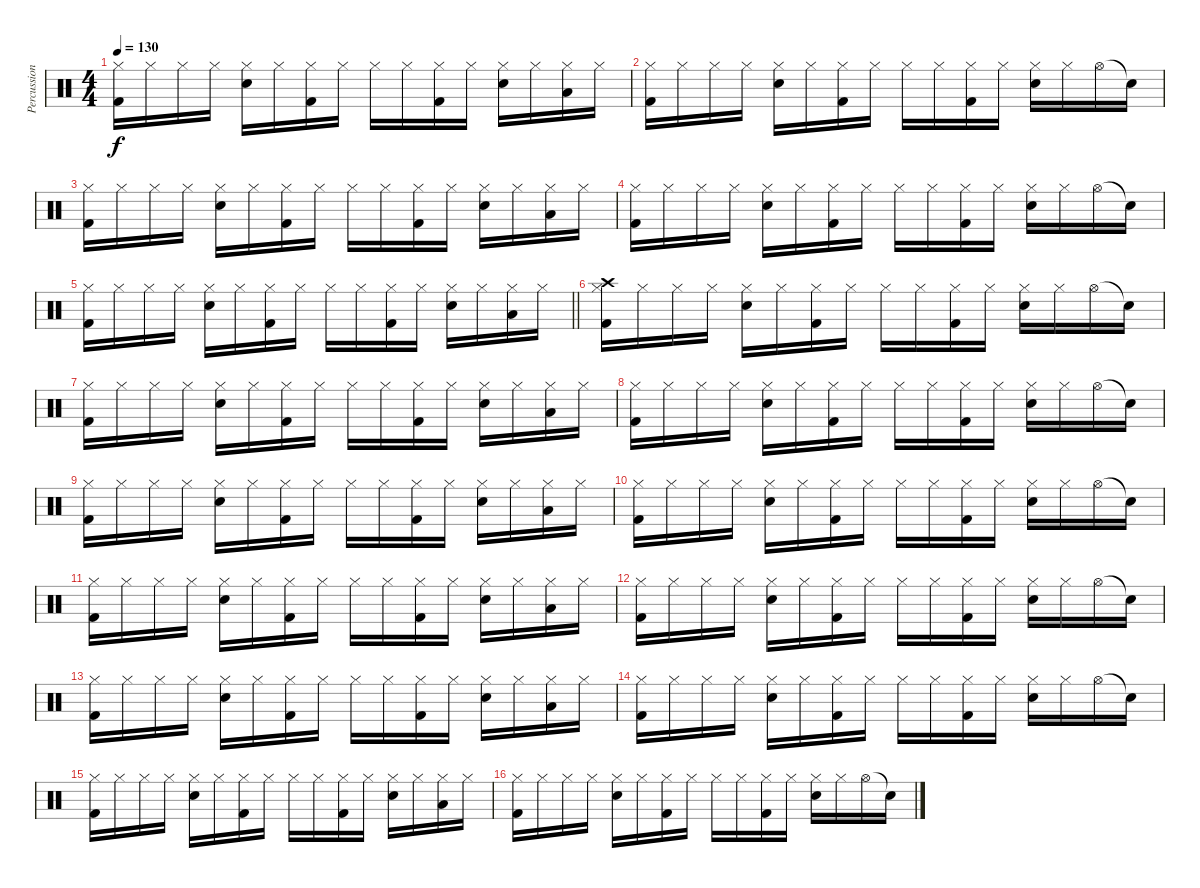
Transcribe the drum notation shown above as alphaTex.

\track ("Percussion" "Percussion") {instrument percussion}
\staff {score}
\articulation defaults
\ts (4 4)
\tempo 130
\clef neutral
\ks c
("Hi-Hat (closed)" "Kick (hit) 2").16{dy f} "Hi-Hat (closed)".16 "Hi-Hat (closed)".16 "Hi-Hat (closed)".16 ("Hi-Hat (closed)" "Snare (hit) 2").16 "Hi-Hat (closed)".16 ("Hi-Hat (closed)" "Kick (hit) 2").16 "Hi-Hat (closed)".16 "Hi-Hat (closed)".16 "Hi-Hat (closed)".16 ("Hi-Hat (closed)" "Kick (hit) 2").16 "Hi-Hat (closed)".16 ("Hi-Hat (closed)" "Snare (hit) 2").16 "Hi-Hat (closed)".16 ("Hi-Hat (closed)" "Low Tom (hit)").16 "Hi-Hat (closed)".16 |
("Hi-Hat (closed)" "Kick (hit) 2").16 "Hi-Hat (closed)".16 "Hi-Hat (closed)".16 "Hi-Hat (closed)".16 ("Hi-Hat (closed)" "Snare (hit) 2").16 "Hi-Hat (closed)".16 ("Hi-Hat (closed)" "Kick (hit) 2").16 "Hi-Hat (closed)".16 "Hi-Hat (closed)".16 "Hi-Hat (closed)".16 ("Hi-Hat (closed)" "Kick (hit) 2").16 "Hi-Hat (closed)".16 ("Hi-Hat (closed)" "Snare (hit) 2").16 "Hi-Hat (closed)".16 "Hi-Hat (open)".16 "Snare (hit)"{t}.16 |
("Hi-Hat (closed)" "Kick (hit) 2").16 "Hi-Hat (closed)".16 "Hi-Hat (closed)".16 "Hi-Hat (closed)".16 ("Hi-Hat (closed)" "Snare (hit) 2").16 "Hi-Hat (closed)".16 ("Hi-Hat (closed)" "Kick (hit) 2").16 "Hi-Hat (closed)".16 "Hi-Hat (closed)".16 "Hi-Hat (closed)".16 ("Hi-Hat (closed)" "Kick (hit) 2").16 "Hi-Hat (closed)".16 ("Hi-Hat (closed)" "Snare (hit) 2").16 "Hi-Hat (closed)".16 ("Hi-Hat (closed)" "Low Tom (hit)").16 "Hi-Hat (closed)".16 |
("Hi-Hat (closed)" "Kick (hit) 2").16 "Hi-Hat (closed)".16 "Hi-Hat (closed)".16 "Hi-Hat (closed)".16 ("Hi-Hat (closed)" "Snare (hit) 2").16 "Hi-Hat (closed)".16 ("Hi-Hat (closed)" "Kick (hit) 2").16 "Hi-Hat (closed)".16 "Hi-Hat (closed)".16 "Hi-Hat (closed)".16 ("Hi-Hat (closed)" "Kick (hit) 2").16 "Hi-Hat (closed)".16 ("Hi-Hat (closed)" "Snare (hit) 2").16 "Hi-Hat (closed)".16 "Hi-Hat (open)".16 "Snare (hit)"{t}.16 |
\barLineRight lightlight
("Hi-Hat (closed)" "Kick (hit) 2").16 "Hi-Hat (closed)".16 "Hi-Hat (closed)".16 "Hi-Hat (closed)".16 ("Hi-Hat (closed)" "Snare (hit) 2").16 "Hi-Hat (closed)".16 ("Hi-Hat (closed)" "Kick (hit) 2").16 "Hi-Hat (closed)".16 "Hi-Hat (closed)".16 "Hi-Hat (closed)".16 ("Hi-Hat (closed)" "Kick (hit) 2").16 "Hi-Hat (closed)".16 ("Hi-Hat (closed)" "Snare (hit) 2").16 "Hi-Hat (closed)".16 ("Hi-Hat (closed)" "Low Tom (hit)").16 "Hi-Hat (closed)".16 |
("Hi-Hat (closed)" "Crash high (hit)" "Kick (hit) 2").16 "Hi-Hat (closed)".16 "Hi-Hat (closed)".16 "Hi-Hat (closed)".16 ("Hi-Hat (closed)" "Snare (hit) 2").16 "Hi-Hat (closed)".16 ("Hi-Hat (closed)" "Kick (hit) 2").16 "Hi-Hat (closed)".16 "Hi-Hat (closed)".16 "Hi-Hat (closed)".16 ("Hi-Hat (closed)" "Kick (hit) 2").16 "Hi-Hat (closed)".16 ("Hi-Hat (closed)" "Snare (hit) 2").16 "Hi-Hat (closed)".16 "Hi-Hat (open)".16 "Snare (hit)"{t}.16 |
("Hi-Hat (closed)" "Kick (hit) 2").16 "Hi-Hat (closed)".16 "Hi-Hat (closed)".16 "Hi-Hat (closed)".16 ("Hi-Hat (closed)" "Snare (hit) 2").16 "Hi-Hat (closed)".16 ("Hi-Hat (closed)" "Kick (hit) 2").16 "Hi-Hat (closed)".16 "Hi-Hat (closed)".16 "Hi-Hat (closed)".16 ("Hi-Hat (closed)" "Kick (hit) 2").16 "Hi-Hat (closed)".16 ("Hi-Hat (closed)" "Snare (hit) 2").16 "Hi-Hat (closed)".16 ("Hi-Hat (closed)" "Low Tom (hit)").16 "Hi-Hat (closed)".16 |
("Hi-Hat (closed)" "Kick (hit) 2").16 "Hi-Hat (closed)".16 "Hi-Hat (closed)".16 "Hi-Hat (closed)".16 ("Hi-Hat (closed)" "Snare (hit) 2").16 "Hi-Hat (closed)".16 ("Hi-Hat (closed)" "Kick (hit) 2").16 "Hi-Hat (closed)".16 "Hi-Hat (closed)".16 "Hi-Hat (closed)".16 ("Hi-Hat (closed)" "Kick (hit) 2").16 "Hi-Hat (closed)".16 ("Hi-Hat (closed)" "Snare (hit) 2").16 "Hi-Hat (closed)".16 "Hi-Hat (open)".16 "Snare (hit)"{t}.16 |
("Hi-Hat (closed)" "Kick (hit) 2").16 "Hi-Hat (closed)".16 "Hi-Hat (closed)".16 "Hi-Hat (closed)".16 ("Hi-Hat (closed)" "Snare (hit) 2").16 "Hi-Hat (closed)".16 ("Hi-Hat (closed)" "Kick (hit) 2").16 "Hi-Hat (closed)".16 "Hi-Hat (closed)".16 "Hi-Hat (closed)".16 ("Hi-Hat (closed)" "Kick (hit) 2").16 "Hi-Hat (closed)".16 ("Hi-Hat (closed)" "Snare (hit) 2").16 "Hi-Hat (closed)".16 ("Hi-Hat (closed)" "Low Tom (hit)").16 "Hi-Hat (closed)".16 |
("Hi-Hat (closed)" "Kick (hit) 2").16 "Hi-Hat (closed)".16 "Hi-Hat (closed)".16 "Hi-Hat (closed)".16 ("Hi-Hat (closed)" "Snare (hit) 2").16 "Hi-Hat (closed)".16 ("Hi-Hat (closed)" "Kick (hit) 2").16 "Hi-Hat (closed)".16 "Hi-Hat (closed)".16 "Hi-Hat (closed)".16 ("Hi-Hat (closed)" "Kick (hit) 2").16 "Hi-Hat (closed)".16 ("Hi-Hat (closed)" "Snare (hit) 2").16 "Hi-Hat (closed)".16 "Hi-Hat (open)".16 "Snare (hit)"{t}.16 |
("Hi-Hat (closed)" "Kick (hit) 2").16 "Hi-Hat (closed)".16 "Hi-Hat (closed)".16 "Hi-Hat (closed)".16 ("Hi-Hat (closed)" "Snare (hit) 2").16 "Hi-Hat (closed)".16 ("Hi-Hat (closed)" "Kick (hit) 2").16 "Hi-Hat (closed)".16 "Hi-Hat (closed)".16 "Hi-Hat (closed)".16 ("Hi-Hat (closed)" "Kick (hit) 2").16 "Hi-Hat (closed)".16 ("Hi-Hat (closed)" "Snare (hit) 2").16 "Hi-Hat (closed)".16 ("Hi-Hat (closed)" "Low Tom (hit)").16 "Hi-Hat (closed)".16 |
("Hi-Hat (closed)" "Kick (hit) 2").16 "Hi-Hat (closed)".16 "Hi-Hat (closed)".16 "Hi-Hat (closed)".16 ("Hi-Hat (closed)" "Snare (hit) 2").16 "Hi-Hat (closed)".16 ("Hi-Hat (closed)" "Kick (hit) 2").16 "Hi-Hat (closed)".16 "Hi-Hat (closed)".16 "Hi-Hat (closed)".16 ("Hi-Hat (closed)" "Kick (hit) 2").16 "Hi-Hat (closed)".16 ("Hi-Hat (closed)" "Snare (hit) 2").16 "Hi-Hat (closed)".16 "Hi-Hat (open)".16 "Snare (hit)"{t}.16 |
("Hi-Hat (closed)" "Kick (hit) 2").16 "Hi-Hat (closed)".16 "Hi-Hat (closed)".16 "Hi-Hat (closed)".16 ("Hi-Hat (closed)" "Snare (hit) 2").16 "Hi-Hat (closed)".16 ("Hi-Hat (closed)" "Kick (hit) 2").16 "Hi-Hat (closed)".16 "Hi-Hat (closed)".16 "Hi-Hat (closed)".16 ("Hi-Hat (closed)" "Kick (hit) 2").16 "Hi-Hat (closed)".16 ("Hi-Hat (closed)" "Snare (hit) 2").16 "Hi-Hat (closed)".16 ("Hi-Hat (closed)" "Low Tom (hit)").16 "Hi-Hat (closed)".16 |
("Hi-Hat (closed)" "Kick (hit) 2").16 "Hi-Hat (closed)".16 "Hi-Hat (closed)".16 "Hi-Hat (closed)".16 ("Hi-Hat (closed)" "Snare (hit) 2").16 "Hi-Hat (closed)".16 ("Hi-Hat (closed)" "Kick (hit) 2").16 "Hi-Hat (closed)".16 "Hi-Hat (closed)".16 "Hi-Hat (closed)".16 ("Hi-Hat (closed)" "Kick (hit) 2").16 "Hi-Hat (closed)".16 ("Hi-Hat (closed)" "Snare (hit) 2").16 "Hi-Hat (closed)".16 "Hi-Hat (open)".16 "Snare (hit)"{t}.16 |
("Hi-Hat (closed)" "Kick (hit) 2").16 "Hi-Hat (closed)".16 "Hi-Hat (closed)".16 "Hi-Hat (closed)".16 ("Hi-Hat (closed)" "Snare (hit) 2").16 "Hi-Hat (closed)".16 ("Hi-Hat (closed)" "Kick (hit) 2").16 "Hi-Hat (closed)".16 "Hi-Hat (closed)".16 "Hi-Hat (closed)".16 ("Hi-Hat (closed)" "Kick (hit) 2").16 "Hi-Hat (closed)".16 ("Hi-Hat (closed)" "Snare (hit) 2").16 "Hi-Hat (closed)".16 ("Hi-Hat (closed)" "Low Tom (hit)").16 "Hi-Hat (closed)".16 |
("Hi-Hat (closed)" "Kick (hit) 2").16 "Hi-Hat (closed)".16 "Hi-Hat (closed)".16 "Hi-Hat (closed)".16 ("Hi-Hat (closed)" "Snare (hit) 2").16 "Hi-Hat (closed)".16 ("Hi-Hat (closed)" "Kick (hit) 2").16 "Hi-Hat (closed)".16 "Hi-Hat (closed)".16 "Hi-Hat (closed)".16 ("Hi-Hat (closed)" "Kick (hit) 2").16 "Hi-Hat (closed)".16 ("Hi-Hat (closed)" "Snare (hit) 2").16 "Hi-Hat (closed)".16 "Hi-Hat (open)".16 "Snare (hit)"{t}.16
